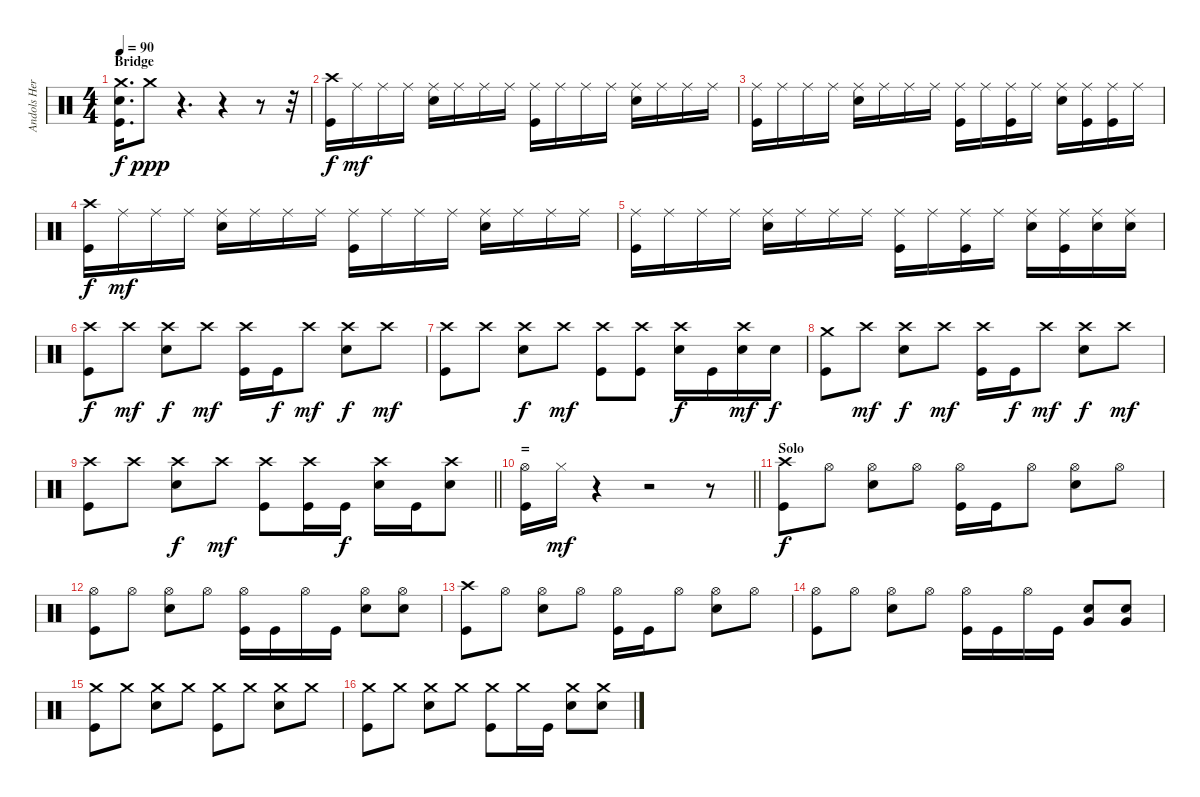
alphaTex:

\track ("Andols Herrick" "Andols Her") {instrument percussion}
\staff
\articulation defaults
\ts (4 4)
\section ("" "Bridge")
\tempo 90
\clef neutral
\ks c
("Crash medium (hit)" "Electric Snare (hit)" "Kick (hit)").16{d dy f} "Crash medium (hit)".8{dy ppp} r.4{d} r.4 r.8 r.32 |
("Crash high (hit)" "Kick (hit)").16{dy f} "Ride (middle)".16{dy mf} "Ride (middle)".16 "Ride (middle)".16 ("Ride (middle)" "Electric Snare (hit)").16 "Ride (middle)".16 "Ride (middle)".16 "Ride (middle)".16 ("Ride (middle)" "Kick (hit)").16 "Ride (middle)".16 "Ride (middle)".16 "Ride (middle)".16 ("Ride (middle)" "Electric Snare (hit)").16 "Ride (middle)".16 "Ride (middle)".16 "Ride (middle)".16 |
("Ride (middle)" "Kick (hit)").16 "Ride (middle)".16 "Ride (middle)".16 "Ride (middle)".16 ("Ride (middle)" "Electric Snare (hit)").16 "Ride (middle)".16 "Ride (middle)".16 "Ride (middle)".16 ("Ride (middle)" "Kick (hit)").16 "Ride (middle)".16 ("Ride (middle)" "Kick (hit)").16 "Ride (middle)".16 ("Ride (middle)" "Electric Snare (hit)").16 ("Ride (middle)" "Kick (hit)").16 ("Ride (middle)" "Kick (hit)").16 "Ride (middle)".16 |
("Crash high (hit)" "Kick (hit)").16{dy f} "Ride (middle)".16{dy mf} "Ride (middle)".16 "Ride (middle)".16 ("Ride (middle)" "Electric Snare (hit)").16 "Ride (middle)".16 "Ride (middle)".16 "Ride (middle)".16 ("Ride (middle)" "Kick (hit)").16 "Ride (middle)".16 "Ride (middle)".16 "Ride (middle)".16 ("Ride (middle)" "Electric Snare (hit)").16 "Ride (middle)".16 "Ride (middle)".16 "Ride (middle)".16 |
("Ride (middle)" "Kick (hit)").16 "Ride (middle)".16 "Ride (middle)".16 "Ride (middle)".16 ("Ride (middle)" "Electric Snare (hit)").16 "Ride (middle)".16 "Ride (middle)".16 "Ride (middle)".16 ("Ride (middle)" "Kick (hit)").16 "Ride (middle)".16 ("Ride (middle)" "Kick (hit)").16 "Ride (middle)".16 ("Ride (middle)" "Electric Snare (hit)").16 ("Ride (middle)" "Kick (hit)").16 ("Ride (middle)" "Electric Snare (hit)").16 ("Ride (middle)" "Electric Snare (hit)").16 |
("Crash high (hit)" "Kick (hit)").8{dy f} "Crash high (hit)".8{dy mf} ("Crash high (hit)" "Electric Snare (hit)").8{dy f} "Crash high (hit)".8{dy mf} ("Crash high (hit)" "Kick (hit)").16 "Kick (hit)".16{dy f} "Crash high (hit)".8{dy mf} ("Crash high (hit)" "Electric Snare (hit)").8{dy f} "Crash high (hit)".8{dy mf} |
("Crash high (hit)" "Kick (hit)").8 "Crash high (hit)".8 ("Crash high (hit)" "Electric Snare (hit)").8{dy f} "Crash high (hit)".8{dy mf} ("Crash high (hit)" "Kick (hit)").8 ("Crash high (hit)" "Kick (hit)").8 ("Crash high (hit)" "Electric Snare (hit)").16{dy f} "Kick (hit)".16 ("Crash high (hit)" "Electric Snare (hit)").16{dy mf} "Electric Snare (hit)".16{dy f} |
("Crash medium (hit)" "Kick (hit)").8 "Crash high (hit)".8{dy mf} ("Crash high (hit)" "Electric Snare (hit)").8{dy f} "Crash high (hit)".8{dy mf} ("Crash high (hit)" "Kick (hit)").16 "Kick (hit)".16{dy f} "Crash high (hit)".8{dy mf} ("Crash high (hit)" "Electric Snare (hit)").8{dy f} "Crash high (hit)".8{dy mf} |
\barLineRight lightlight
("Crash high (hit)" "Kick (hit)").8 "Crash high (hit)".8 ("Crash high (hit)" "Electric Snare (hit)").8{dy f} "Crash high (hit)".8{dy mf} ("Crash high (hit)" "Kick (hit)").8 ("Crash high (hit)" "Kick (hit)").16 "Kick (hit)".16{dy f} ("Crash high (hit)" "Electric Snare (hit)").16 "Kick (hit)".16 ("Crash high (hit)" "Electric Snare (hit)").8 |
\section ("" "=")
\barLineRight lightlight
("Hi-Hat (open)" "Kick (hit)").16 "Hi-Hat (closed)".16{dy mf} r.4 r.2 r.8 |
\section ("" "Solo")
("Crash high (hit)" "Kick (hit)").8{dy f} "Hi-Hat (open)".8 ("Hi-Hat (open)" "Electric Snare (hit)").8 "Hi-Hat (open)".8 ("Hi-Hat (open)" "Kick (hit)").16 "Kick (hit)".16 "Hi-Hat (open)".8 ("Hi-Hat (open)" "Electric Snare (hit)").8 "Hi-Hat (open)".8 |
("Hi-Hat (open)" "Kick (hit)").8 "Hi-Hat (open)".8 ("Hi-Hat (open)" "Electric Snare (hit)").8 "Hi-Hat (open)".8 ("Hi-Hat (open)" "Kick (hit)").16 "Kick (hit)".16 "Hi-Hat (open)".16 "Kick (hit)".16 ("Hi-Hat (open)" "Electric Snare (hit)").8 ("Hi-Hat (open)" "Electric Snare (hit)").8 |
("Crash high (hit)" "Kick (hit)").8 "Hi-Hat (open)".8 ("Hi-Hat (open)" "Electric Snare (hit)").8 "Hi-Hat (open)".8 ("Hi-Hat (open)" "Kick (hit)").16 "Kick (hit)".16 "Hi-Hat (open)".8 ("Hi-Hat (open)" "Electric Snare (hit)").8 "Hi-Hat (open)".8 |
("Hi-Hat (open)" "Kick (hit)").8 "Hi-Hat (open)".8 ("Hi-Hat (open)" "Electric Snare (hit)").8 "Hi-Hat (open)".8 ("Hi-Hat (open)" "Kick (hit)").16 "Kick (hit)".16 "Hi-Hat (open)".16 "Kick (hit)".16 ("Electric Snare (hit)" "Very Low Tom (hit)").8 ("Electric Snare (hit)" "Very Low Tom (hit)").8 |
("Crash medium (hit)" "Kick (hit)").8 "Crash medium (hit)".8 ("Crash medium (hit)" "Electric Snare (hit)").8 "Crash medium (hit)".8 ("Crash medium (hit)" "Kick (hit)").8 "Crash medium (hit)".8 ("Crash medium (hit)" "Electric Snare (hit)").8 "Crash medium (hit)".8 |
("Crash medium (hit)" "Kick (hit)").8 "Crash medium (hit)".8 ("Crash medium (hit)" "Electric Snare (hit)").8 "Crash medium (hit)".8 ("Crash medium (hit)" "Kick (hit)").8 "Crash medium (hit)".16 "Kick (hit)".16 ("Crash medium (hit)" "Electric Snare (hit)").8 ("Crash medium (hit)" "Electric Snare (hit)").8
